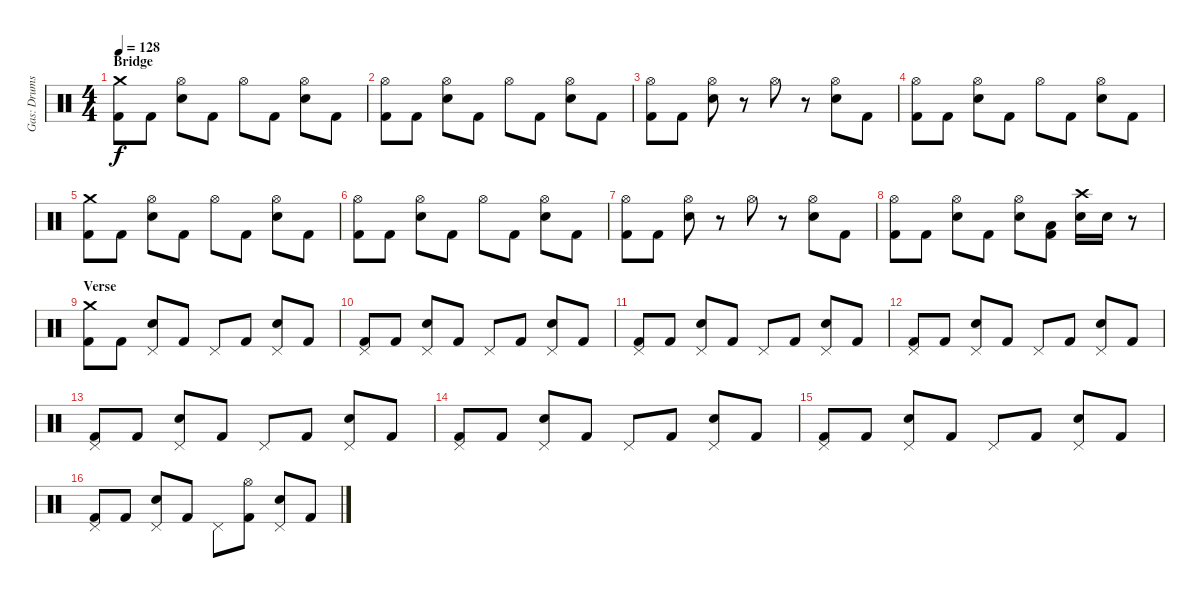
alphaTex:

\track ("Gas: Drums" "Gas: Drums") {instrument percussion}
\staff {score}
\articulation defaults
\ts (4 4)
\section ("" "Bridge")
\tempo 128
\clef neutral
\ks c
("Crash medium (hit)" "Kick (hit) 2").8{dy f} "Kick (hit) 2".8 ("Hi-Hat (open)" "Electric Snare (hit)").8 "Kick (hit) 2".8 "Hi-Hat (open)".8 "Kick (hit) 2".8 ("Hi-Hat (open)" "Electric Snare (hit)").8 "Kick (hit) 2".8 |
("Hi-Hat (open)" "Kick (hit) 2").8 "Kick (hit) 2".8 ("Hi-Hat (open)" "Electric Snare (hit)").8 "Kick (hit) 2".8 "Hi-Hat (open)".8 "Kick (hit) 2".8 ("Hi-Hat (open)" "Electric Snare (hit)").8 "Kick (hit) 2".8 |
("Hi-Hat (open)" "Kick (hit) 2").8 "Kick (hit) 2".8 ("Hi-Hat (open)" "Electric Snare (hit)").8 r.8 "Hi-Hat (open)".8 r.8 ("Hi-Hat (open)" "Electric Snare (hit)").8 "Kick (hit) 2".8 |
("Hi-Hat (open)" "Kick (hit) 2").8 "Kick (hit) 2".8 ("Hi-Hat (open)" "Electric Snare (hit)").8 "Kick (hit) 2".8 "Hi-Hat (open)".8 "Kick (hit) 2".8 ("Hi-Hat (open)" "Electric Snare (hit)").8 "Kick (hit) 2".8 |
("Crash medium (hit)" "Kick (hit) 2").8 "Kick (hit) 2".8 ("Hi-Hat (open)" "Electric Snare (hit)").8 "Kick (hit) 2".8 "Hi-Hat (open)".8 "Kick (hit) 2".8 ("Hi-Hat (open)" "Electric Snare (hit)").8 "Kick (hit) 2".8 |
("Hi-Hat (open)" "Kick (hit) 2").8 "Kick (hit) 2".8 ("Hi-Hat (open)" "Electric Snare (hit)").8 "Kick (hit) 2".8 "Hi-Hat (open)".8 "Kick (hit) 2".8 ("Hi-Hat (open)" "Electric Snare (hit)").8 "Kick (hit) 2".8 |
("Hi-Hat (open)" "Kick (hit) 2").8 "Kick (hit) 2".8 ("Hi-Hat (open)" "Electric Snare (hit)").8 r.8 "Hi-Hat (open)".8 r.8 ("Hi-Hat (open)" "Electric Snare (hit)").8 "Kick (hit) 2".8 |
("Hi-Hat (open)" "Kick (hit) 2").8 "Kick (hit) 2".8 ("Hi-Hat (open)" "Electric Snare (hit)").8 "Kick (hit) 2".8 ("Hi-Hat (open)" "Electric Snare (hit)").8 ("Low Tom (hit)" "Kick (hit) 2").8 ("Crash high (hit)" "Electric Snare (hit)").16 "Electric Snare (hit)".16 r.8 |
\section ("" "Verse")
("Crash medium (hit)" "Kick (hit) 2").8 "Kick (hit) 2".8 ("Pedal Hi-Hat (hit)" "Electric Snare (hit)").8 "Kick (hit) 2".8 "Pedal Hi-Hat (hit)".8 "Kick (hit) 2".8 ("Pedal Hi-Hat (hit)" "Electric Snare (hit)").8 "Kick (hit) 2".8 |
("Pedal Hi-Hat (hit)" "Kick (hit) 2").8 "Kick (hit) 2".8 ("Pedal Hi-Hat (hit)" "Electric Snare (hit)").8 "Kick (hit) 2".8 "Pedal Hi-Hat (hit)".8 "Kick (hit) 2".8 ("Pedal Hi-Hat (hit)" "Electric Snare (hit)").8 "Kick (hit) 2".8 |
("Pedal Hi-Hat (hit)" "Kick (hit) 2").8 "Kick (hit) 2".8 ("Pedal Hi-Hat (hit)" "Electric Snare (hit)").8 "Kick (hit) 2".8 "Pedal Hi-Hat (hit)".8 "Kick (hit) 2".8 ("Pedal Hi-Hat (hit)" "Electric Snare (hit)").8 "Kick (hit) 2".8 |
("Pedal Hi-Hat (hit)" "Kick (hit) 2").8 "Kick (hit) 2".8 ("Pedal Hi-Hat (hit)" "Electric Snare (hit)").8 "Kick (hit) 2".8 "Pedal Hi-Hat (hit)".8 "Kick (hit) 2".8 ("Pedal Hi-Hat (hit)" "Electric Snare (hit)").8 "Kick (hit) 2".8 |
("Pedal Hi-Hat (hit)" "Kick (hit) 2").8 "Kick (hit) 2".8 ("Pedal Hi-Hat (hit)" "Electric Snare (hit)").8 "Kick (hit) 2".8 "Pedal Hi-Hat (hit)".8 "Kick (hit) 2".8 ("Pedal Hi-Hat (hit)" "Electric Snare (hit)").8 "Kick (hit) 2".8 |
("Pedal Hi-Hat (hit)" "Kick (hit) 2").8 "Kick (hit) 2".8 ("Pedal Hi-Hat (hit)" "Electric Snare (hit)").8 "Kick (hit) 2".8 "Pedal Hi-Hat (hit)".8 "Kick (hit) 2".8 ("Pedal Hi-Hat (hit)" "Electric Snare (hit)").8 "Kick (hit) 2".8 |
("Pedal Hi-Hat (hit)" "Kick (hit) 2").8 "Kick (hit) 2".8 ("Pedal Hi-Hat (hit)" "Electric Snare (hit)").8 "Kick (hit) 2".8 "Pedal Hi-Hat (hit)".8 "Kick (hit) 2".8 ("Pedal Hi-Hat (hit)" "Electric Snare (hit)").8 "Kick (hit) 2".8 |
("Pedal Hi-Hat (hit)" "Kick (hit) 2").8 "Kick (hit) 2".8 ("Pedal Hi-Hat (hit)" "Electric Snare (hit)").8 "Kick (hit) 2".8 "Pedal Hi-Hat (hit)".8 ("Hi-Hat (open)" "Kick (hit) 2").8 ("Pedal Hi-Hat (hit)" "Electric Snare (hit)").8 "Kick (hit) 2".8
